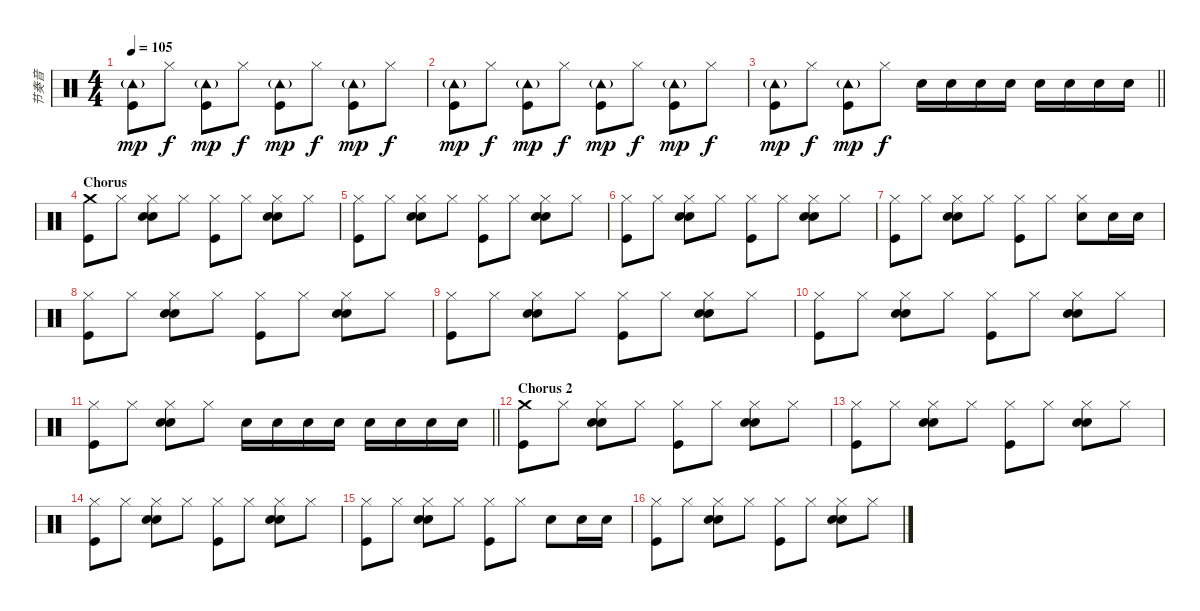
\track ("节奏音" "节奏音") {instrument percussion}
\staff {score}
\articulation defaults
\ts (4 4)
\tempo 105
\clef neutral
\ks c
("Tambourine (hit)"{g} "Kick (hit)").8{dy mp} "Hi-Hat (closed)".8{dy f} ("Tambourine (hit)"{g} "Kick (hit)").8{dy mp} "Hi-Hat (closed)".8{dy f} ("Tambourine (hit)"{g} "Kick (hit)").8{dy mp} "Hi-Hat (closed)".8{dy f} ("Tambourine (hit)"{g} "Kick (hit)").8{dy mp} "Hi-Hat (closed)".8{dy f} |
("Tambourine (hit)"{g} "Kick (hit)").8{dy mp} "Hi-Hat (closed)".8{dy f} ("Tambourine (hit)"{g} "Kick (hit)").8{dy mp} "Hi-Hat (closed)".8{dy f} ("Tambourine (hit)"{g} "Kick (hit)").8{dy mp} "Hi-Hat (closed)".8{dy f} ("Tambourine (hit)"{g} "Kick (hit)").8{dy mp} "Hi-Hat (closed)".8{dy f} |
\barLineRight lightlight
("Tambourine (hit)"{g} "Kick (hit)").8{dy mp} "Hi-Hat (closed)".8{dy f} ("Tambourine (hit)"{g} "Kick (hit)").8{dy mp} "Hi-Hat (closed)".8{dy f} "Snare (hit) 2".16 "Snare (hit) 2".16 "Snare (hit) 2".16 "Snare (hit) 2".16 "Snare (hit) 2".16 "Snare (hit) 2".16 "Snare (hit) 2".16 "Snare (hit) 2".16 |
\section ("" "Chorus")
("Crash medium (hit)" "Kick (hit)").8 "Hi-Hat (closed)".8 ("Hi-Hat (closed)" "Hand Clap (hit)" "Snare (hit) 2").8 "Hi-Hat (closed)".8 ("Hi-Hat (closed)" "Kick (hit)").8 "Hi-Hat (closed)".8 ("Hi-Hat (closed)" "Hand Clap (hit)" "Snare (hit) 2").8 "Hi-Hat (closed)".8 |
("Hi-Hat (closed)" "Kick (hit)").8 "Hi-Hat (closed)".8 ("Hi-Hat (closed)" "Hand Clap (hit)" "Snare (hit) 2").8 "Hi-Hat (closed)".8 ("Hi-Hat (closed)" "Kick (hit)").8 "Hi-Hat (closed)".8 ("Hi-Hat (closed)" "Hand Clap (hit)" "Snare (hit) 2").8 "Hi-Hat (closed)".8 |
("Hi-Hat (closed)" "Kick (hit)").8 "Hi-Hat (closed)".8 ("Hi-Hat (closed)" "Hand Clap (hit)" "Snare (hit) 2").8 "Hi-Hat (closed)".8 ("Hi-Hat (closed)" "Kick (hit)").8 "Hi-Hat (closed)".8 ("Hi-Hat (closed)" "Hand Clap (hit)" "Snare (hit) 2").8 "Hi-Hat (closed)".8 |
("Hi-Hat (closed)" "Kick (hit)").8 "Hi-Hat (closed)".8 ("Hi-Hat (closed)" "Hand Clap (hit)" "Snare (hit) 2").8 "Hi-Hat (closed)".8 ("Hi-Hat (closed)" "Kick (hit)").8 "Hi-Hat (closed)".8 ("Hi-Hat (closed)" "Snare (hit) 2").8 "Snare (hit) 2".16 "Snare (hit) 2".16 |
("Hi-Hat (closed)" "Kick (hit)").8 "Hi-Hat (closed)".8 ("Hi-Hat (closed)" "Hand Clap (hit)" "Snare (hit) 2").8 "Hi-Hat (closed)".8 ("Hi-Hat (closed)" "Kick (hit)").8 "Hi-Hat (closed)".8 ("Hi-Hat (closed)" "Hand Clap (hit)" "Snare (hit) 2").8 "Hi-Hat (closed)".8 |
("Hi-Hat (closed)" "Kick (hit)").8 "Hi-Hat (closed)".8 ("Hi-Hat (closed)" "Hand Clap (hit)" "Snare (hit) 2").8 "Hi-Hat (closed)".8 ("Hi-Hat (closed)" "Kick (hit)").8 "Hi-Hat (closed)".8 ("Hi-Hat (closed)" "Hand Clap (hit)" "Snare (hit) 2").8 "Hi-Hat (closed)".8 |
("Hi-Hat (closed)" "Kick (hit)").8 "Hi-Hat (closed)".8 ("Hi-Hat (closed)" "Hand Clap (hit)" "Snare (hit) 2").8 "Hi-Hat (closed)".8 ("Hi-Hat (closed)" "Kick (hit)").8 "Hi-Hat (closed)".8 ("Hi-Hat (closed)" "Hand Clap (hit)" "Snare (hit) 2").8 "Hi-Hat (closed)".8 |
\barLineRight lightlight
("Hi-Hat (closed)" "Kick (hit)").8 "Hi-Hat (closed)".8 ("Hi-Hat (closed)" "Hand Clap (hit)" "Snare (hit) 2").8 "Hi-Hat (closed)".8 "Snare (hit) 2".16 "Snare (hit) 2".16 "Snare (hit) 2".16 "Snare (hit) 2".16 "Snare (hit) 2".16 "Snare (hit) 2".16 "Snare (hit) 2".16 "Snare (hit) 2".16 |
\section ("" "Chorus 2")
("Crash medium (hit)" "Kick (hit)").8 "Hi-Hat (closed)".8 ("Hi-Hat (closed)" "Hand Clap (hit)" "Snare (hit) 2").8 "Hi-Hat (closed)".8 ("Hi-Hat (closed)" "Kick (hit)").8 "Hi-Hat (closed)".8 ("Hi-Hat (closed)" "Hand Clap (hit)" "Snare (hit) 2").8 "Hi-Hat (closed)".8 |
("Hi-Hat (closed)" "Kick (hit)").8 "Hi-Hat (closed)".8 ("Hi-Hat (closed)" "Hand Clap (hit)" "Snare (hit) 2").8 "Hi-Hat (closed)".8 ("Hi-Hat (closed)" "Kick (hit)").8 "Hi-Hat (closed)".8 ("Hi-Hat (closed)" "Hand Clap (hit)" "Snare (hit) 2").8 "Hi-Hat (closed)".8 |
("Hi-Hat (closed)" "Kick (hit)").8 "Hi-Hat (closed)".8 ("Hi-Hat (closed)" "Hand Clap (hit)" "Snare (hit) 2").8 "Hi-Hat (closed)".8 ("Hi-Hat (closed)" "Kick (hit)").8 "Hi-Hat (closed)".8 ("Hi-Hat (closed)" "Hand Clap (hit)" "Snare (hit) 2").8 "Hi-Hat (closed)".8 |
("Hi-Hat (closed)" "Kick (hit)").8 "Hi-Hat (closed)".8 ("Hi-Hat (closed)" "Hand Clap (hit)" "Snare (hit) 2").8 "Hi-Hat (closed)".8 ("Hi-Hat (closed)" "Kick (hit)").8 "Hi-Hat (closed)".8 "Snare (hit) 2".8 "Snare (hit) 2".16 "Snare (hit) 2".16 |
("Hi-Hat (closed)" "Kick (hit)").8 "Hi-Hat (closed)".8 ("Hi-Hat (closed)" "Hand Clap (hit)" "Snare (hit) 2").8 "Hi-Hat (closed)".8 ("Hi-Hat (closed)" "Kick (hit)").8 "Hi-Hat (closed)".8 ("Hi-Hat (closed)" "Hand Clap (hit)" "Snare (hit) 2").8 "Hi-Hat (closed)".8
